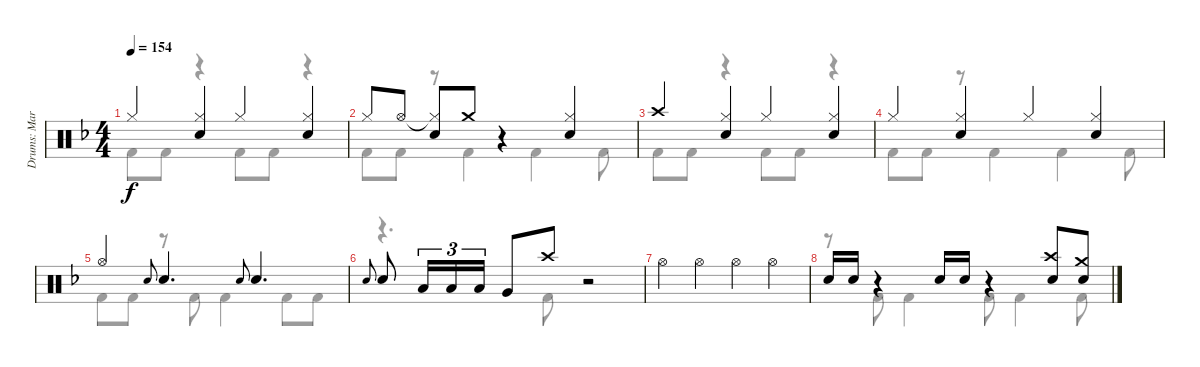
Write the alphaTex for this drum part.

\track ("Drums: Mark" "Drums: Mar") {instrument percussion}
\staff {score}
\articulation defaults
\voice
\ts (4 4)
\tempo 154
\clef neutral
\ks f "Hi-Hat (closed)".4{dy f}
("Hi-Hat (closed)" "Snare (hit) 2").4 "Hi-Hat (closed)".4 ("Hi-Hat (closed)" "Snare (hit) 2").4 |
"Hi-Hat (closed)".8 "Hi-Hat (open)".8 ("Hi-Hat (closed)"{t} "Snare (hit) 2").8 "Crash medium (hit)".8 r.4 ("Hi-Hat (closed)" "Snare (hit) 2").4 |
"Crash high (hit)".4 ("Hi-Hat (closed)" "Snare (hit) 2").4 "Hi-Hat (closed)".4 ("Hi-Hat (closed)" "Snare (hit) 2").4 |
"Hi-Hat (closed)".4 ("Hi-Hat (closed)" "Snare (hit) 2").4 "Hi-Hat (closed)".4 ("Hi-Hat (closed)" "Snare (hit) 2").4 |
"Hi-Hat (open)".4 "Electric Snare (hit)".8{gr onbeat} "Snare (hit) 2".4{d} "Electric Snare (hit)".8{gr onbeat} "Snare (hit) 2".4{d} |
"Electric Snare (hit)".8{gr onbeat} "Snare (hit) 2".8 "Low Tom (hit)".16{tu (3 2)} "Low Tom (hit)".16{tu (3 2)} "Low Tom (hit)".16{tu (3 2)} "Very Low Tom (hit)".8 "Crash high (hit)".8 r.2 |
"Hi-Hat (open)".4 "Hi-Hat (open)".4 "Hi-Hat (open)".4 "Hi-Hat (open)".4 |
"Snare (hit) 2".16 "Snare (hit) 2".16 r.4 "Snare (hit) 2".16 "Snare (hit) 2".16 r.4 ("Crash high (hit)" "Snare (hit) 2").8 ("Crash medium (hit)" "Snare (hit) 2").8
\voice
\clef neutral
\ottava regular
\simile none
\ks f "Kick (hit) 2".8{dy f} "Kick (hit) 2".8
r.4 "Kick (hit) 2".8 "Kick (hit) 2".8 r.4 |
"Kick (hit) 2".8 "Kick (hit) 2".8 r.8 "Kick (hit) 2".4 "Kick (hit) 2".4 "Kick (hit) 2".8 |
"Kick (hit) 2".8 "Kick (hit) 2".8 r.4 "Kick (hit) 2".8 "Kick (hit) 2".8 r.4 |
"Kick (hit) 2".8 "Kick (hit) 2".8 r.8 "Kick (hit) 2".4 "Kick (hit) 2".4 "Kick (hit) 2".8 |
"Kick (hit) 2".8 "Kick (hit) 2".8 r.8 "Kick (hit) 2".8 "Kick (hit) 2".4 "Kick (hit) 2".8 "Kick (hit) 2".8 |
r.4{d} "Kick (hit) 2".8 r.2 |
|
r.8 "Kick (hit) 2".8 "Kick (hit) 2".4 "Kick (hit) 2".8 "Kick (hit) 2".4 "Kick (hit) 2".8
